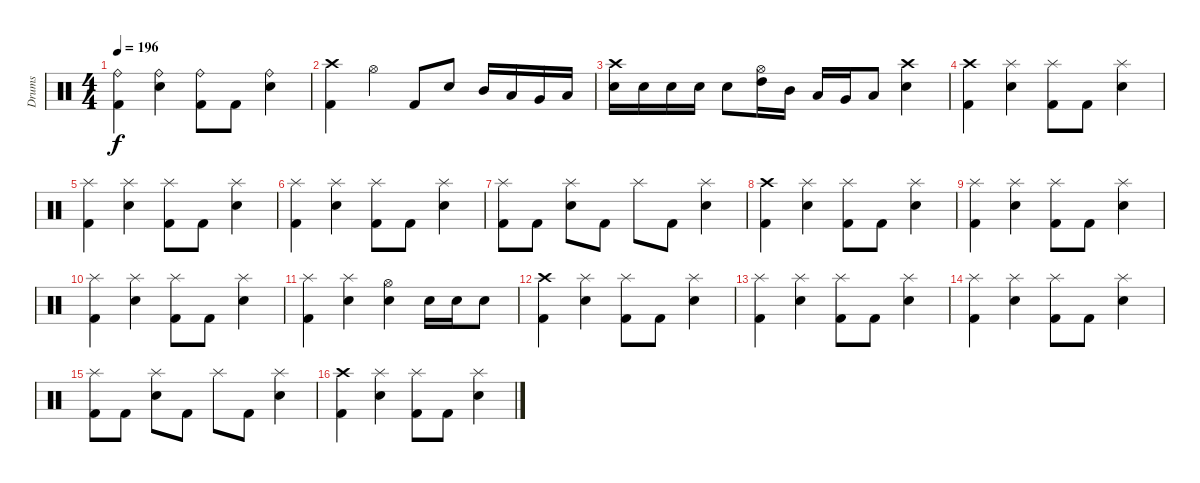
\track ("Drums" "Drums") {instrument percussion}
\staff {score}
\articulation defaults
\ts (4 4)
\tempo 196
\clef neutral
\ks c
("Ride (bell)" "Kick (hit) 2").4{dy f} ("Ride (bell)" "Snare (hit) 2").4 ("Ride (bell)" "Kick (hit) 2").8 "Kick (hit) 2".8 ("Ride (bell)" "Snare (hit) 2").4 |
("Crash high (hit)" "Kick (hit) 2").4 "Hi-Hat (open)".4 "Kick (hit) 2".8 "Snare (hit) 2".8 "Mid Tom (hit)".16 "Low Tom (hit)".16 "Very Low Tom (hit)".16 "Low Floor Tom (hit)".16 |
("Crash high (hit)" "Snare (hit) 2").16 "Snare (hit) 2".16 "Snare (hit) 2".16 "Snare (hit) 2".16 "Snare (hit) 2".8 ("Hi-Hat (open)" "High Tom (hit)").16 "Mid Tom (hit)".16 "Low Tom (hit)".16 "Very Low Tom (hit)".16 "Low Floor Tom (hit)".8 ("Crash high (hit)" "Electric Snare (hit)").4 |
("Crash high (hit)" "Kick (hit) 2").4 ("Splash (hit)" "Snare (hit) 2").4 ("Splash (hit)" "Kick (hit) 2").8 "Kick (hit) 2".8 ("Splash (hit)" "Snare (hit) 2").4 |
("Splash (hit)" "Kick (hit) 2").4 ("Splash (hit)" "Snare (hit) 2").4 ("Splash (hit)" "Kick (hit) 2").8 "Kick (hit) 2".8 ("Splash (hit)" "Snare (hit) 2").4 |
("Splash (hit)" "Kick (hit) 2").4 ("Splash (hit)" "Snare (hit) 2").4 ("Splash (hit)" "Kick (hit) 2").8 "Kick (hit) 2".8 ("Splash (hit)" "Snare (hit) 2").4 |
("Splash (hit)" "Kick (hit) 2").8 "Kick (hit) 2".8 ("Splash (hit)" "Snare (hit) 2").8 "Kick (hit) 2".8 "Splash (hit)".8 "Kick (hit) 2".8 ("Splash (hit)" "Snare (hit) 2").4 |
("Crash high (hit)" "Kick (hit) 2").4 ("Splash (hit)" "Snare (hit) 2").4 ("Splash (hit)" "Kick (hit) 2").8 "Kick (hit) 2".8 ("Splash (hit)" "Snare (hit) 2").4 |
("Splash (hit)" "Kick (hit) 2").4 ("Splash (hit)" "Snare (hit) 2").4 ("Splash (hit)" "Kick (hit) 2").8 "Kick (hit) 2".8 ("Splash (hit)" "Snare (hit) 2").4 |
("Splash (hit)" "Kick (hit) 2").4 ("Splash (hit)" "Snare (hit) 2").4 ("Splash (hit)" "Kick (hit) 2").8 "Kick (hit) 2".8 ("Splash (hit)" "Snare (hit) 2").4 |
("Splash (hit)" "Kick (hit) 2").4 ("Splash (hit)" "Snare (hit) 2").4 ("Hi-Hat (open)" "Snare (hit) 2").4 "Snare (hit) 2".16 "Snare (hit) 2".16 "Snare (hit) 2".8 |
("Crash high (hit)" "Kick (hit) 2").4 ("Splash (hit)" "Snare (hit) 2").4 ("Splash (hit)" "Kick (hit) 2").8 "Kick (hit) 2".8 ("Splash (hit)" "Snare (hit) 2").4 |
("Splash (hit)" "Kick (hit) 2").4 ("Splash (hit)" "Snare (hit) 2").4 ("Splash (hit)" "Kick (hit) 2").8 "Kick (hit) 2".8 ("Splash (hit)" "Snare (hit) 2").4 |
("Splash (hit)" "Kick (hit) 2").4 ("Splash (hit)" "Snare (hit) 2").4 ("Splash (hit)" "Kick (hit) 2").8 "Kick (hit) 2".8 ("Splash (hit)" "Snare (hit) 2").4 |
("Splash (hit)" "Kick (hit) 2").8 "Kick (hit) 2".8 ("Splash (hit)" "Snare (hit) 2").8 "Kick (hit) 2".8 "Splash (hit)".8 "Kick (hit) 2".8 ("Splash (hit)" "Snare (hit) 2").4 |
("Crash high (hit)" "Kick (hit) 2").4 ("Splash (hit)" "Snare (hit) 2").4 ("Splash (hit)" "Kick (hit) 2").8 "Kick (hit) 2".8 ("Splash (hit)" "Snare (hit) 2").4
